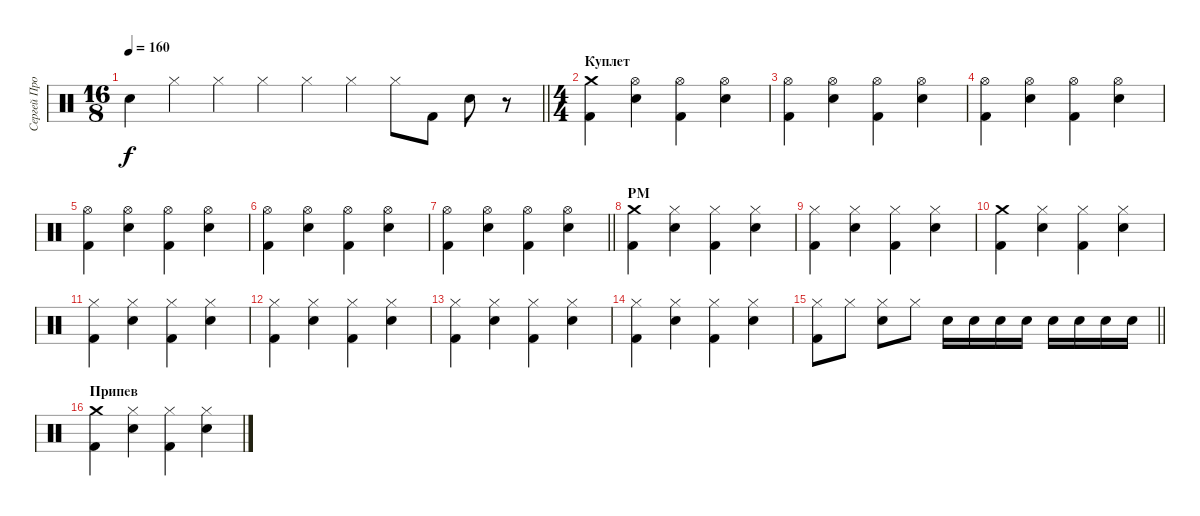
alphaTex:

\track ("Сергей Прокофьев" "Сергей Про") {instrument percussion}
\staff {score}
\articulation defaults
\ts (16 8)
\tempo 160
\clef neutral
\barLineRight lightlight
\ks c "Snare (hit) 2".4{dy f} "Hi-Hat (closed)".4 "Hi-Hat (closed)".4 "Hi-Hat (closed)".4 "Hi-Hat (closed)".4 "Hi-Hat (closed)".4 "Hi-Hat (closed)".8 "Kick (hit) 2".8 "Snare (hit) 2".8
r.8 |
\ts (4 4)
\section ("" "Куплет")
("Crash medium (hit)" "Kick (hit) 2").4 ("Hi-Hat (open)" "Snare (hit) 2").4 ("Hi-Hat (open)" "Kick (hit) 2").4 ("Hi-Hat (open)" "Snare (hit) 2").4 |
("Hi-Hat (open)" "Kick (hit) 2").4 ("Hi-Hat (open)" "Snare (hit) 2").4 ("Hi-Hat (open)" "Kick (hit) 2").4 ("Hi-Hat (open)" "Snare (hit) 2").4 |
("Hi-Hat (open)" "Kick (hit) 2").4 ("Hi-Hat (open)" "Snare (hit) 2").4 ("Hi-Hat (open)" "Kick (hit) 2").4 ("Hi-Hat (open)" "Snare (hit) 2").4 |
("Hi-Hat (open)" "Kick (hit) 2").4 ("Hi-Hat (open)" "Snare (hit) 2").4 ("Hi-Hat (open)" "Kick (hit) 2").4 ("Hi-Hat (open)" "Snare (hit) 2").4 |
("Hi-Hat (open)" "Kick (hit) 2").4 ("Hi-Hat (open)" "Snare (hit) 2").4 ("Hi-Hat (open)" "Kick (hit) 2").4 ("Hi-Hat (open)" "Snare (hit) 2").4 |
\barLineRight lightlight
("Hi-Hat (open)" "Kick (hit) 2").4 ("Hi-Hat (open)" "Snare (hit) 2").4 ("Hi-Hat (open)" "Kick (hit) 2").4 ("Hi-Hat (open)" "Snare (hit) 2").4 |
\section ("" "PM")
("Crash medium (hit)" "Kick (hit) 2").4 ("Hi-Hat (closed)" "Snare (hit) 2").4 ("Hi-Hat (closed)" "Kick (hit) 2").4 ("Hi-Hat (closed)" "Snare (hit) 2").4 |
("Hi-Hat (closed)" "Kick (hit) 2").4 ("Hi-Hat (closed)" "Snare (hit) 2").4 ("Hi-Hat (closed)" "Kick (hit) 2").4 ("Hi-Hat (closed)" "Snare (hit) 2").4 |
("Crash medium (hit)" "Kick (hit) 2").4 ("Hi-Hat (closed)" "Snare (hit) 2").4 ("Hi-Hat (closed)" "Kick (hit) 2").4 ("Hi-Hat (closed)" "Snare (hit) 2").4 |
("Hi-Hat (closed)" "Kick (hit) 2").4 ("Hi-Hat (closed)" "Snare (hit) 2").4 ("Hi-Hat (closed)" "Kick (hit) 2").4 ("Hi-Hat (closed)" "Snare (hit) 2").4 |
("Hi-Hat (closed)" "Kick (hit) 2").4 ("Hi-Hat (closed)" "Snare (hit) 2").4 ("Hi-Hat (closed)" "Kick (hit) 2").4 ("Hi-Hat (closed)" "Snare (hit) 2").4 |
("Hi-Hat (closed)" "Kick (hit) 2").4 ("Hi-Hat (closed)" "Snare (hit) 2").4 ("Hi-Hat (closed)" "Kick (hit) 2").4 ("Hi-Hat (closed)" "Snare (hit) 2").4 |
("Hi-Hat (closed)" "Kick (hit) 2").4 ("Hi-Hat (closed)" "Snare (hit) 2").4 ("Hi-Hat (closed)" "Kick (hit) 2").4 ("Hi-Hat (closed)" "Snare (hit) 2").4 |
\barLineRight lightlight
("Hi-Hat (closed)" "Kick (hit) 2").8 "Hi-Hat (closed)".8 ("Hi-Hat (closed)" "Snare (hit) 2").8 "Hi-Hat (closed)".8 "Snare (hit) 2".16 "Snare (hit) 2".16 "Snare (hit) 2".16 "Snare (hit) 2".16 "Snare (hit) 2".16 "Snare (hit) 2".16 "Snare (hit) 2".16 "Snare (hit) 2".16 |
\section ("" "Припев")
("Crash medium (hit)" "Kick (hit) 2").4 ("Hi-Hat (closed)" "Snare (hit) 2").4 ("Hi-Hat (closed)" "Kick (hit) 2").4 ("Hi-Hat (closed)" "Snare (hit) 2").4
